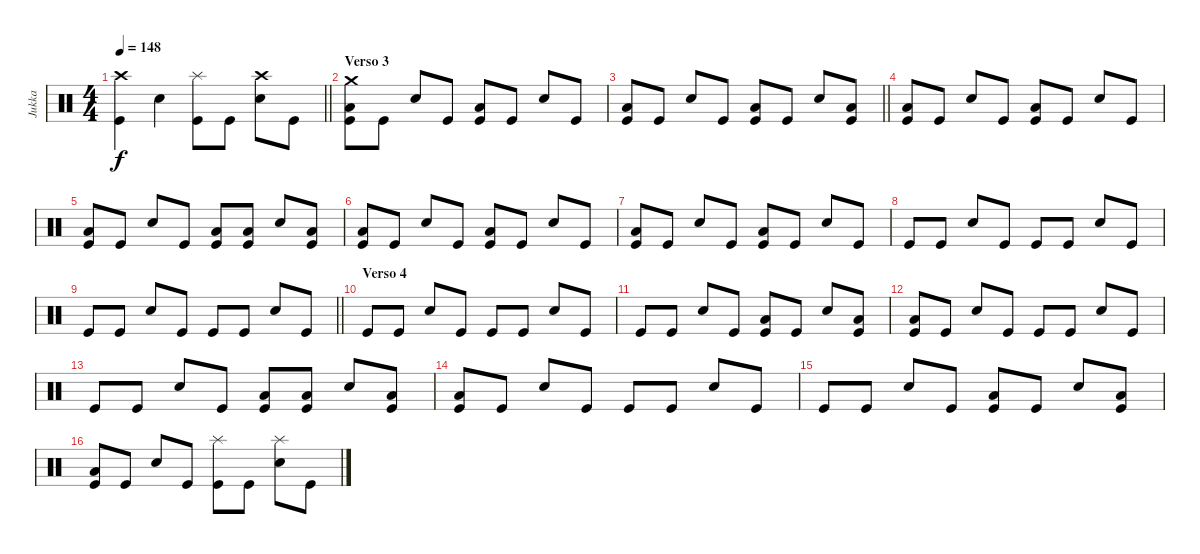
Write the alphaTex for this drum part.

\track ("Jukka" "Jukka") {instrument percussion}
\staff {score}
\articulation defaults
\ts (4 4)
\tempo 148
\clef neutral
\barLineRight lightlight
\ks c
("Kick (hit)" "Crash high (hit)").4{dy f} "Snare (hit) 2".4 ("Kick (hit)" "Splash (hit)").8 "Kick (hit)".8 ("Snare (hit) 2" "Crash high (hit)").8 "Kick (hit)".8 |
\section ("" "Verso 3")
("Kick (hit)" "Low Floor Tom (hit)" "Crash medium (hit)").8 "Kick (hit)".8 "Snare (hit) 2".8 "Kick (hit)".8 ("Kick (hit)" "Low Floor Tom (hit)").8 "Kick (hit)".8 "Snare (hit) 2".8 "Kick (hit)".8 |
\barLineRight lightlight
("Kick (hit)" "Low Floor Tom (hit)").8 "Kick (hit)".8 "Snare (hit) 2".8 "Kick (hit)".8 ("Kick (hit)" "Low Floor Tom (hit)").8 "Kick (hit)".8 "Snare (hit) 2".8 ("Kick (hit)" "Low Floor Tom (hit)").8 |
("Kick (hit)" "Low Floor Tom (hit)").8 "Kick (hit)".8 "Snare (hit) 2".8 "Kick (hit)".8 ("Kick (hit)" "Low Floor Tom (hit)").8 "Kick (hit)".8 "Snare (hit) 2".8 "Kick (hit)".8 |
("Kick (hit)" "Low Floor Tom (hit)").8 "Kick (hit)".8 "Snare (hit) 2".8 "Kick (hit)".8 ("Kick (hit)" "Low Floor Tom (hit)").8 ("Kick (hit)" "Low Floor Tom (hit)").8 "Snare (hit) 2".8 ("Kick (hit)" "Low Floor Tom (hit)").8 |
("Kick (hit)" "Low Floor Tom (hit)").8 "Kick (hit)".8 "Snare (hit) 2".8 "Kick (hit)".8 ("Kick (hit)" "Low Floor Tom (hit)").8 "Kick (hit)".8 "Snare (hit) 2".8 "Kick (hit)".8 |
("Kick (hit)" "Low Floor Tom (hit)").8 "Kick (hit)".8 "Snare (hit) 2".8 "Kick (hit)".8 ("Kick (hit)" "Low Floor Tom (hit)").8 "Kick (hit)".8 "Snare (hit) 2".8 "Kick (hit)".8 |
"Kick (hit)".8 "Kick (hit)".8 "Snare (hit) 2".8 "Kick (hit)".8 "Kick (hit)".8 "Kick (hit)".8 "Snare (hit) 2".8 "Kick (hit)".8 |
\barLineRight lightlight "Kick (hit)".8 "Kick (hit)".8 "Snare (hit) 2".8 "Kick (hit)".8 "Kick (hit)".8 "Kick (hit)".8 "Snare (hit) 2".8 "Kick (hit)".8
|
\section ("" "Verso 4")
"Kick (hit)".8 "Kick (hit)".8 "Snare (hit) 2".8 "Kick (hit)".8 "Kick (hit)".8 "Kick (hit)".8 "Snare (hit) 2".8 "Kick (hit)".8 |
"Kick (hit)".8 "Kick (hit)".8 "Snare (hit) 2".8 "Kick (hit)".8 ("Kick (hit)" "Low Floor Tom (hit)").8 "Kick (hit)".8 "Snare (hit) 2".8 ("Kick (hit)" "Low Floor Tom (hit)").8 |
("Kick (hit)" "Low Floor Tom (hit)").8 "Kick (hit)".8 "Snare (hit) 2".8 "Kick (hit)".8 "Kick (hit)".8 "Kick (hit)".8 "Snare (hit) 2".8 "Kick (hit)".8 |
"Kick (hit)".8 "Kick (hit)".8 "Snare (hit) 2".8 "Kick (hit)".8 ("Kick (hit)" "Low Floor Tom (hit)").8 ("Kick (hit)" "Low Floor Tom (hit)").8 "Snare (hit) 2".8 ("Kick (hit)" "Low Floor Tom (hit)").8 |
("Kick (hit)" "Low Floor Tom (hit)").8 "Kick (hit)".8 "Snare (hit) 2".8 "Kick (hit)".8 "Kick (hit)".8 "Kick (hit)".8 "Snare (hit) 2".8 "Kick (hit)".8 |
"Kick (hit)".8 "Kick (hit)".8 "Snare (hit) 2".8 "Kick (hit)".8 ("Kick (hit)" "Low Floor Tom (hit)").8 "Kick (hit)".8 "Snare (hit) 2".8 ("Kick (hit)" "Low Floor Tom (hit)").8 |
("Kick (hit)" "Low Floor Tom (hit)").8 "Kick (hit)".8 "Snare (hit) 2".8 "Kick (hit)".8 ("Kick (hit)" "Splash (hit)").8 "Kick (hit)".8 ("Snare (hit) 2" "Splash (hit)").8 "Kick (hit)".8
